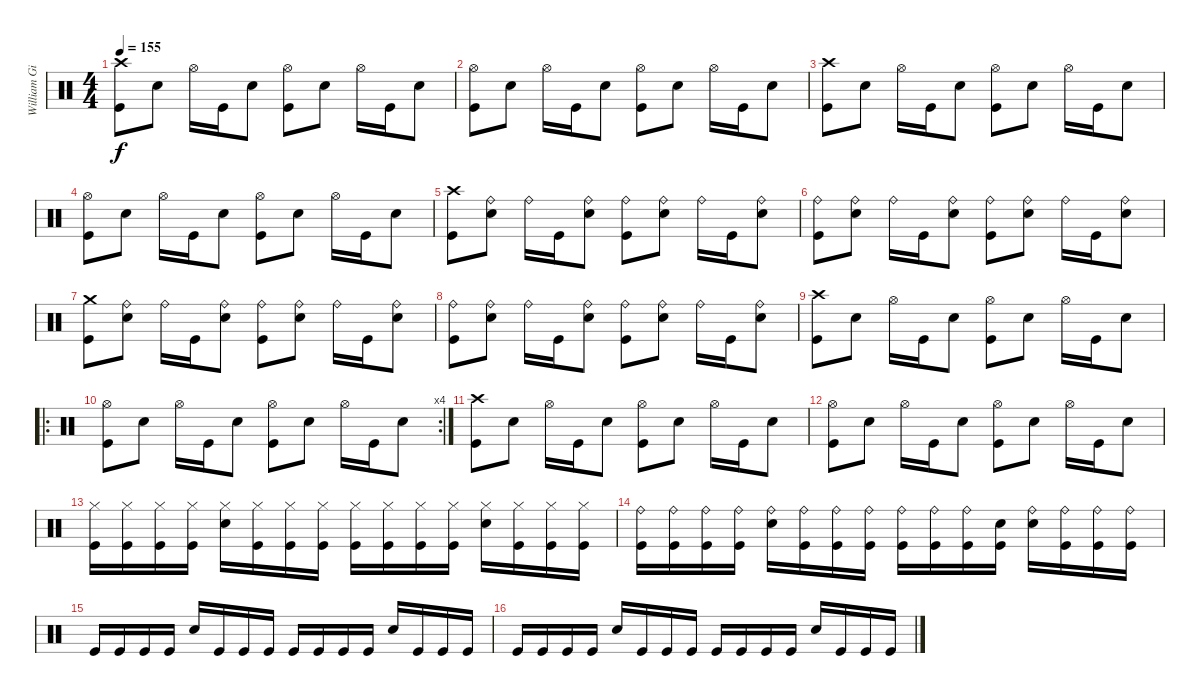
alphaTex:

\track ("William Gibson DRUMS" "William Gi") {instrument percussion}
\staff {score}
\articulation defaults
\ts (4 4)
\tempo 155
\clef neutral
\ks c
("Crash high (hit)" "Kick (hit)").8{dy f} "Electric Snare (hit)".8 "Hi-Hat (open)".16 "Kick (hit)".16 "Electric Snare (hit)".8 ("Hi-Hat (open)" "Kick (hit)").8 "Electric Snare (hit)".8 "Hi-Hat (open)".16 "Kick (hit)".16 "Electric Snare (hit)".8 |
("Hi-Hat (open)" "Kick (hit)").8 "Electric Snare (hit)".8 "Hi-Hat (open)".16 "Kick (hit)".16 "Electric Snare (hit)".8 ("Hi-Hat (open)" "Kick (hit)").8 "Electric Snare (hit)".8 "Hi-Hat (open)".16 "Kick (hit)".16 "Electric Snare (hit)".8 |
("Crash high (hit)" "Kick (hit)").8 "Electric Snare (hit)".8 "Hi-Hat (open)".16 "Kick (hit)".16 "Electric Snare (hit)".8 ("Hi-Hat (open)" "Kick (hit)").8 "Electric Snare (hit)".8 "Hi-Hat (open)".16 "Kick (hit)".16 "Electric Snare (hit)".8 |
("Hi-Hat (open)" "Kick (hit)").8 "Electric Snare (hit)".8 "Hi-Hat (open)".16 "Kick (hit)".16 "Electric Snare (hit)".8 ("Hi-Hat (open)" "Kick (hit)").8 "Electric Snare (hit)".8 "Hi-Hat (open)".16 "Kick (hit)".16 "Electric Snare (hit)".8 |
("Crash high (hit)" "Kick (hit)").8 ("Ride (bell)" "Electric Snare (hit)").8 "Ride (bell)".16 "Kick (hit)".16 ("Ride (bell)" "Electric Snare (hit)").8 ("Ride (bell)" "Kick (hit)").8 ("Ride (bell)" "Electric Snare (hit)").8 "Ride (bell)".16 "Kick (hit)".16 ("Ride (bell)" "Electric Snare (hit)").8 |
("Ride (bell)" "Kick (hit)").8 ("Ride (bell)" "Electric Snare (hit)").8 "Ride (bell)".16 "Kick (hit)".16 ("Ride (bell)" "Electric Snare (hit)").8 ("Ride (bell)" "Kick (hit)").8 ("Ride (bell)" "Electric Snare (hit)").8 "Ride (bell)".16 "Kick (hit)".16 ("Ride (bell)" "Electric Snare (hit)").8 |
("Crash medium (hit)" "Kick (hit)").8 ("Ride (bell)" "Electric Snare (hit)").8 "Ride (bell)".16 "Kick (hit)".16 ("Ride (bell)" "Electric Snare (hit)").8 ("Ride (bell)" "Kick (hit)").8 ("Ride (bell)" "Electric Snare (hit)").8 "Ride (bell)".16 "Kick (hit)".16 ("Ride (bell)" "Electric Snare (hit)").8 |
("Ride (bell)" "Kick (hit)").8 ("Ride (bell)" "Electric Snare (hit)").8 "Ride (bell)".16 "Kick (hit)".16 ("Ride (bell)" "Electric Snare (hit)").8 ("Ride (bell)" "Kick (hit)").8 ("Ride (bell)" "Electric Snare (hit)").8 "Ride (bell)".16 "Kick (hit)".16 ("Ride (bell)" "Electric Snare (hit)").8 |
("Crash high (hit)" "Kick (hit)").8 "Electric Snare (hit)".8 "Hi-Hat (open)".16 "Kick (hit)".16 "Electric Snare (hit)".8 ("Hi-Hat (open)" "Kick (hit)").8 "Electric Snare (hit)".8 "Hi-Hat (open)".16 "Kick (hit)".16 "Electric Snare (hit)".8 |
\ro
\rc 4
("Hi-Hat (open)" "Kick (hit)").8 "Electric Snare (hit)".8 "Hi-Hat (open)".16 "Kick (hit)".16 "Electric Snare (hit)".8 ("Hi-Hat (open)" "Kick (hit)").8 "Electric Snare (hit)".8 "Hi-Hat (open)".16 "Kick (hit)".16 "Electric Snare (hit)".8 |
("Crash high (hit)" "Kick (hit)").8 "Electric Snare (hit)".8 "Hi-Hat (open)".16 "Kick (hit)".16 "Electric Snare (hit)".8 ("Hi-Hat (open)" "Kick (hit)").8 "Electric Snare (hit)".8 "Hi-Hat (open)".16 "Kick (hit)".16 "Electric Snare (hit)".8 |
("Hi-Hat (open)" "Kick (hit)").8 "Electric Snare (hit)".8 "Hi-Hat (open)".16 "Kick (hit)".16 "Electric Snare (hit)".8 ("Hi-Hat (open)" "Kick (hit)").8 "Electric Snare (hit)".8 "Hi-Hat (open)".16 "Kick (hit)".16 "Electric Snare (hit)".8 |
("Hi-Hat (closed)" "Kick (hit)").16 ("Hi-Hat (closed)" "Kick (hit)").16 ("Hi-Hat (closed)" "Kick (hit)").16 ("Hi-Hat (closed)" "Kick (hit)").16 ("Hi-Hat (closed)" "Electric Snare (hit)").16 ("Hi-Hat (closed)" "Kick (hit)").16 ("Hi-Hat (closed)" "Kick (hit)").16 ("Hi-Hat (closed)" "Kick (hit)").16 ("Hi-Hat (closed)" "Kick (hit)").16 ("Hi-Hat (closed)" "Kick (hit)").16 ("Hi-Hat (closed)" "Kick (hit)").16 ("Hi-Hat (closed)" "Kick (hit)").16 ("Hi-Hat (closed)" "Electric Snare (hit)").16 ("Hi-Hat (closed)" "Kick (hit)").16 ("Hi-Hat (closed)" "Kick (hit)").16 ("Hi-Hat (closed)" "Kick (hit)").16 |
("Ride (bell)" "Kick (hit)").16 ("Ride (bell)" "Kick (hit)").16 ("Ride (bell)" "Kick (hit)").16 ("Ride (bell)" "Kick (hit)").16 ("Ride (bell)" "Electric Snare (hit)").16 ("Ride (bell)" "Kick (hit)").16 ("Ride (bell)" "Kick (hit)").16 ("Ride (bell)" "Kick (hit)").16 ("Ride (bell)" "Kick (hit)").16 ("Ride (bell)" "Kick (hit)").16 ("Ride (bell)" "Kick (hit)").16 ("Snare (hit)" "Kick (hit)").16 ("Ride (bell)" "Electric Snare (hit)").16 ("Ride (bell)" "Kick (hit)").16 ("Ride (bell)" "Kick (hit)").16 ("Ride (bell)" "Kick (hit)").16 |
"Kick (hit)".16 "Kick (hit)".16 "Kick (hit)".16 "Kick (hit)".16 "Electric Snare (hit)".16 "Kick (hit)".16 "Kick (hit)".16 "Kick (hit)".16 "Kick (hit)".16 "Kick (hit)".16 "Kick (hit)".16 "Kick (hit)".16 "Electric Snare (hit)".16 "Kick (hit)".16 "Kick (hit)".16 "Kick (hit)".16 |
"Kick (hit)".16 "Kick (hit)".16 "Kick (hit)".16 "Kick (hit)".16 "Electric Snare (hit)".16 "Kick (hit)".16 "Kick (hit)".16 "Kick (hit)".16 "Kick (hit)".16 "Kick (hit)".16 "Kick (hit)".16 "Kick (hit)".16 "Electric Snare (hit)".16 "Kick (hit)".16 "Kick (hit)".16 "Kick (hit)".16
